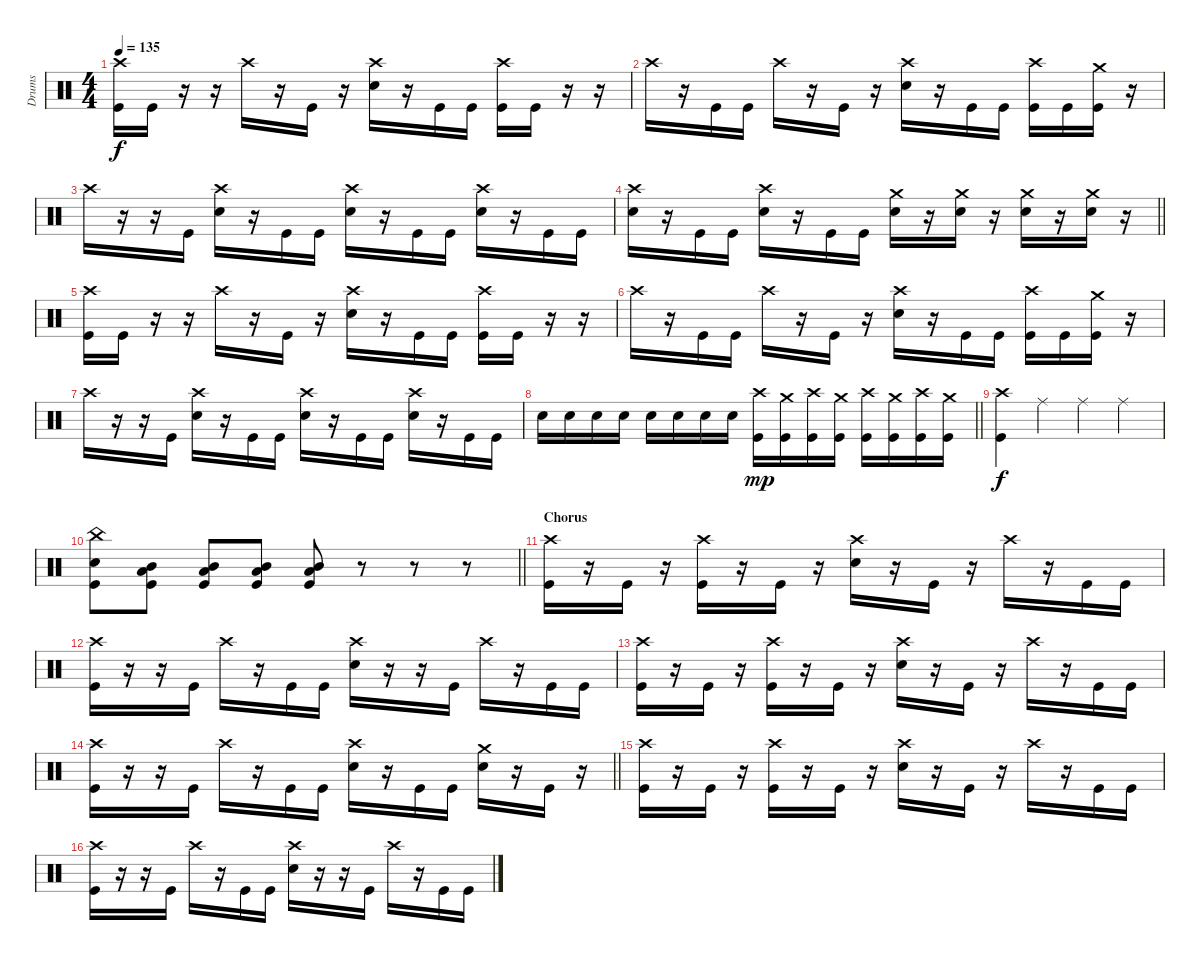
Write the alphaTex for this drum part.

\track ("Drums" "Drums") {instrument percussion}
\staff {score}
\articulation defaults
\ts (4 4)
\tempo 135
\clef neutral
\ks c
("Crash high (hit)" "Kick (hit)").16{dy f} "Kick (hit)".16 r.16 r.16 "Crash high (hit)".16 r.16 "Kick (hit)".16 r.16 ("Crash high (hit)" "Snare (hit) 2").16 r.16 "Kick (hit)".16 "Kick (hit)".16 ("Crash high (hit)" "Kick (hit)").16 "Kick (hit)".16 r.16 r.16 |
"Crash high (hit)".16 r.16 "Kick (hit)".16 "Kick (hit)".16 "Crash high (hit)".16 r.16 "Kick (hit)".16 r.16 ("Crash high (hit)" "Snare (hit) 2").16 r.16 "Kick (hit)".16 "Kick (hit)".16 ("Crash high (hit)" "Kick (hit)").16 "Kick (hit)".16 ("Crash medium (hit)" "Kick (hit)").16 r.16 |
"Crash high (hit)".16 r.16 r.16 "Kick (hit)".16 ("Crash high (hit)" "Snare (hit) 2").16 r.16 "Kick (hit)".16 "Kick (hit)".16 ("Crash high (hit)" "Snare (hit) 2").16 r.16 "Kick (hit)".16 "Kick (hit)".16 ("Crash high (hit)" "Snare (hit) 2").16 r.16 "Kick (hit)".16 "Kick (hit)".16 |
\barLineRight lightlight
("Crash high (hit)" "Snare (hit) 2").16 r.16 "Kick (hit)".16 "Kick (hit)".16 ("Crash high (hit)" "Snare (hit) 2").16 r.16 "Kick (hit)".16 "Kick (hit)".16 ("Crash medium (hit)" "Snare (hit) 2").16 r.16 ("Crash medium (hit)" "Snare (hit) 2").16 r.16 ("Crash medium (hit)" "Snare (hit) 2").16 r.16 ("Crash medium (hit)" "Snare (hit) 2").16 r.16 |
("Crash high (hit)" "Kick (hit)").16 "Kick (hit)".16 r.16 r.16 "Crash high (hit)".16 r.16 "Kick (hit)".16 r.16 ("Crash high (hit)" "Snare (hit) 2").16 r.16 "Kick (hit)".16 "Kick (hit)".16 ("Crash high (hit)" "Kick (hit)").16 "Kick (hit)".16 r.16 r.16 |
"Crash high (hit)".16 r.16 "Kick (hit)".16 "Kick (hit)".16 "Crash high (hit)".16 r.16 "Kick (hit)".16 r.16 ("Crash high (hit)" "Snare (hit) 2").16 r.16 "Kick (hit)".16 "Kick (hit)".16 ("Crash high (hit)" "Kick (hit)").16 "Kick (hit)".16 ("Crash medium (hit)" "Kick (hit)").16 r.16 |
"Crash high (hit)".16 r.16 r.16 "Kick (hit)".16 ("Crash high (hit)" "Snare (hit) 2").16 r.16 "Kick (hit)".16 "Kick (hit)".16 ("Crash high (hit)" "Snare (hit) 2").16 r.16 "Kick (hit)".16 "Kick (hit)".16 ("Crash high (hit)" "Snare (hit) 2").16 r.16 "Kick (hit)".16 "Kick (hit)".16 |
\barLineRight lightlight "Snare (hit) 2".16 "Snare (hit) 2".16 "Snare (hit) 2".16 "Snare (hit) 2".16 "Snare (hit) 2".16 "Snare (hit) 2".16 "Snare (hit) 2".16 "Snare (hit) 2".16
("Crash high (hit)" "Kick (hit)").16{dy mp} ("Crash medium (hit)" "Kick (hit)").16 ("Crash high (hit)" "Kick (hit)").16 ("Crash medium (hit)" "Kick (hit)").16 ("Crash high (hit)" "Kick (hit)").16 ("Crash medium (hit)" "Kick (hit)").16 ("Crash high (hit)" "Kick (hit)").16 ("Crash medium (hit)" "Kick (hit)").16 |
("Crash high (hit)" "Kick (hit)").4{dy f} "Ride (middle)".4 "Ride (middle)".4 "Ride (middle)".4 |
\barLineRight lightlight
("China (hit)" "Snare (hit) 2" "Kick (hit)").8 ("Low Floor Tom (hit)" "Mid Tom (hit)" "Kick (hit)").8 ("Low Floor Tom (hit)" "Mid Tom (hit)" "Kick (hit)").8 ("Low Floor Tom (hit)" "Mid Tom (hit)" "Kick (hit)").8 ("Low Floor Tom (hit)" "Mid Tom (hit)" "Kick (hit)").8 r.8 r.8 r.8 |
\section ("" "Chorus")
("Crash high (hit)" "Kick (hit)").16 r.16 "Kick (hit)".16 r.16 ("Crash high (hit)" "Kick (hit)").16 r.16 "Kick (hit)".16 r.16 ("Crash high (hit)" "Snare (hit) 2").16 r.16 "Kick (hit)".16 r.16 "Crash high (hit)".16 r.16 "Kick (hit)".16 "Kick (hit)".16 |
("Crash high (hit)" "Kick (hit)").16 r.16 r.16 "Kick (hit)".16 "Crash high (hit)".16 r.16 "Kick (hit)".16 "Kick (hit)".16 ("Crash high (hit)" "Snare (hit) 2").16 r.16 r.16 "Kick (hit)".16 "Crash high (hit)".16 r.16 "Kick (hit)".16 "Kick (hit)".16 |
("Crash high (hit)" "Kick (hit)").16 r.16 "Kick (hit)".16 r.16 ("Crash high (hit)" "Kick (hit)").16 r.16 "Kick (hit)".16 r.16 ("Crash high (hit)" "Snare (hit) 2").16 r.16 "Kick (hit)".16 r.16 "Crash high (hit)".16 r.16 "Kick (hit)".16 "Kick (hit)".16 |
\barLineRight lightlight
("Crash high (hit)" "Kick (hit)").16 r.16 r.16 "Kick (hit)".16 "Crash high (hit)".16 r.16 "Kick (hit)".16 "Kick (hit)".16 ("Crash high (hit)" "Snare (hit) 2").16 r.16 "Kick (hit)".16 "Kick (hit)".16 ("Crash medium (hit)" "Snare (hit) 2").16 r.16 "Kick (hit)".16 r.16 |
("Crash high (hit)" "Kick (hit)").16 r.16 "Kick (hit)".16 r.16 ("Crash high (hit)" "Kick (hit)").16 r.16 "Kick (hit)".16 r.16 ("Crash high (hit)" "Snare (hit) 2").16 r.16 "Kick (hit)".16 r.16 "Crash high (hit)".16 r.16 "Kick (hit)".16 "Kick (hit)".16 |
("Crash high (hit)" "Kick (hit)").16 r.16 r.16 "Kick (hit)".16 "Crash high (hit)".16 r.16 "Kick (hit)".16 "Kick (hit)".16 ("Crash high (hit)" "Snare (hit) 2").16 r.16 r.16 "Kick (hit)".16 "Crash high (hit)".16 r.16 "Kick (hit)".16 "Kick (hit)".16
